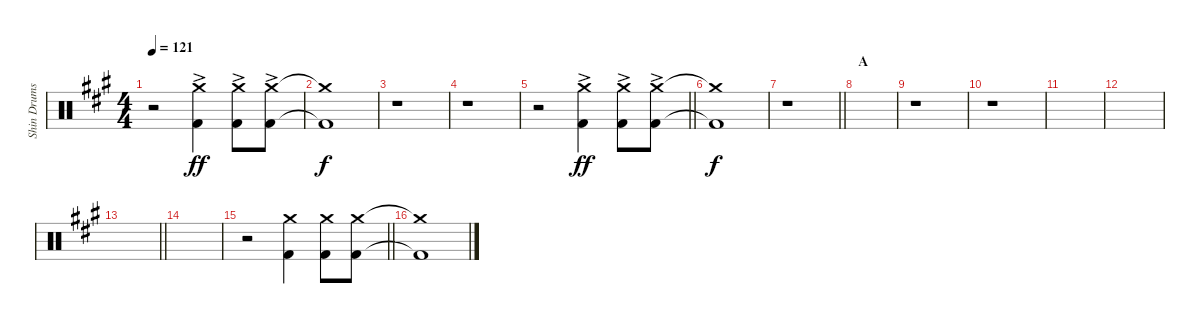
\track ("Shin Drums" "Shin Drums") {instrument percussion}
\staff {score}
\articulation defaults
\ts (4 4)
\section ("" "")
\tempo 121
\clef neutral
\ks a
r.2{dy ff} ("Crash medium (hit)" "Kick (hit) 2"{ac}).4 ("Crash medium (hit)" "Kick (hit) 2"{ac}).8 ("Crash medium (hit)" "Kick (hit) 2"{ac}).8 |
("Crash medium (hit)"{t} "Kick (hit) 2"{t}).1{dy f} |
r.1 |
r.1 |
\barLineRight lightlight
r.2 ("Crash medium (hit)" "Kick (hit) 2"{ac}).4{dy ff} ("Crash medium (hit)" "Kick (hit) 2"{ac}).8 ("Crash medium (hit)" "Kick (hit) 2"{ac}).8 |
\section ("" "")
("Crash medium (hit)"{t} "Kick (hit) 2"{t}).1{dy f} |
\barLineRight lightlight
r.1 |
\section ("" "A")
|
r.1 |
r.1 |
|
|
\barLineRight lightlight
|
\section ("" "")
|
\barLineRight lightlight
r.2 ("Crash medium (hit)" "Kick (hit) 2").4 ("Crash medium (hit)" "Kick (hit) 2").8 ("Crash medium (hit)" "Kick (hit) 2").8 |
\section ("" "")
("Crash medium (hit)"{t} "Kick (hit) 2"{t}).1
